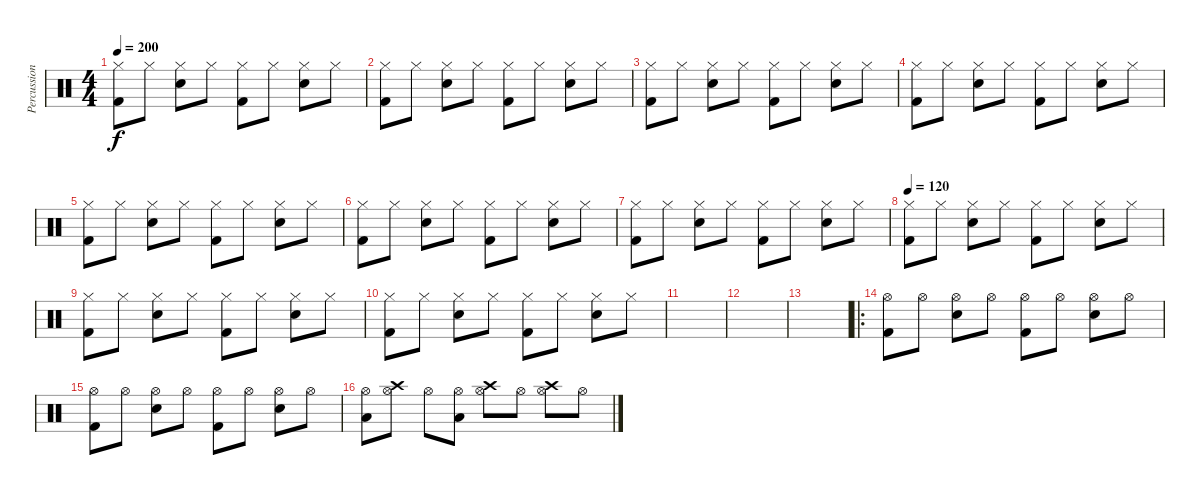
\track ("Percussion" "Percussion") {instrument percussion}
\staff {score}
\articulation defaults
\ts (4 4)
\tempo 200
\clef neutral
\ks c
("Hi-Hat (closed)" "Kick (hit) 2").8{dy f} "Hi-Hat (closed)".8 ("Hi-Hat (closed)" "Electric Snare (hit)").8 "Hi-Hat (closed)".8 ("Hi-Hat (closed)" "Kick (hit) 2").8 "Hi-Hat (closed)".8 ("Hi-Hat (closed)" "Electric Snare (hit)").8 "Hi-Hat (closed)".8 |
("Hi-Hat (closed)" "Kick (hit) 2").8 "Hi-Hat (closed)".8 ("Hi-Hat (closed)" "Electric Snare (hit)").8 "Hi-Hat (closed)".8 ("Hi-Hat (closed)" "Kick (hit) 2").8 "Hi-Hat (closed)".8 ("Hi-Hat (closed)" "Electric Snare (hit)").8 "Hi-Hat (closed)".8 |
("Hi-Hat (closed)" "Kick (hit) 2").8 "Hi-Hat (closed)".8 ("Hi-Hat (closed)" "Electric Snare (hit)").8 "Hi-Hat (closed)".8 ("Hi-Hat (closed)" "Kick (hit) 2").8 "Hi-Hat (closed)".8 ("Hi-Hat (closed)" "Electric Snare (hit)").8 "Hi-Hat (closed)".8 |
("Hi-Hat (closed)" "Kick (hit) 2").8 "Hi-Hat (closed)".8 ("Hi-Hat (closed)" "Electric Snare (hit)").8 "Hi-Hat (closed)".8 ("Hi-Hat (closed)" "Kick (hit) 2").8 "Hi-Hat (closed)".8 ("Hi-Hat (closed)" "Electric Snare (hit)").8 "Hi-Hat (closed)".8 |
("Hi-Hat (closed)" "Kick (hit) 2").8 "Hi-Hat (closed)".8 ("Hi-Hat (closed)" "Electric Snare (hit)").8 "Hi-Hat (closed)".8 ("Hi-Hat (closed)" "Kick (hit) 2").8 "Hi-Hat (closed)".8 ("Hi-Hat (closed)" "Electric Snare (hit)").8 "Hi-Hat (closed)".8 |
("Hi-Hat (closed)" "Kick (hit) 2").8 "Hi-Hat (closed)".8 ("Hi-Hat (closed)" "Electric Snare (hit)").8 "Hi-Hat (closed)".8 ("Hi-Hat (closed)" "Kick (hit) 2").8 "Hi-Hat (closed)".8 ("Hi-Hat (closed)" "Electric Snare (hit)").8 "Hi-Hat (closed)".8 |
("Hi-Hat (closed)" "Kick (hit) 2").8 "Hi-Hat (closed)".8 ("Hi-Hat (closed)" "Electric Snare (hit)").8 "Hi-Hat (closed)".8 ("Hi-Hat (closed)" "Kick (hit) 2").8 "Hi-Hat (closed)".8 ("Hi-Hat (closed)" "Electric Snare (hit)").8 "Hi-Hat (closed)".8 |
\tempo 120
("Hi-Hat (closed)" "Kick (hit) 2").8 "Hi-Hat (closed)".8 ("Hi-Hat (closed)" "Electric Snare (hit)").8 "Hi-Hat (closed)".8 ("Hi-Hat (closed)" "Kick (hit) 2").8 "Hi-Hat (closed)".8 ("Hi-Hat (closed)" "Electric Snare (hit)").8 "Hi-Hat (closed)".8 |
("Hi-Hat (closed)" "Kick (hit) 2").8 "Hi-Hat (closed)".8 ("Hi-Hat (closed)" "Electric Snare (hit)").8 "Hi-Hat (closed)".8 ("Hi-Hat (closed)" "Kick (hit) 2").8 "Hi-Hat (closed)".8 ("Hi-Hat (closed)" "Electric Snare (hit)").8 "Hi-Hat (closed)".8 |
("Hi-Hat (closed)" "Kick (hit) 2").8 "Hi-Hat (closed)".8 ("Hi-Hat (closed)" "Electric Snare (hit)").8 "Hi-Hat (closed)".8 ("Hi-Hat (closed)" "Kick (hit) 2").8 "Hi-Hat (closed)".8 ("Hi-Hat (closed)" "Electric Snare (hit)").8 "Hi-Hat (closed)".8 |
|
|
|
\ro
("Hi-Hat (open)" "Kick (hit) 2").8 "Hi-Hat (open)".8 ("Hi-Hat (open)" "Electric Snare (hit)").8 "Hi-Hat (open)".8 ("Hi-Hat (open)" "Kick (hit) 2").8 "Hi-Hat (open)".8 ("Hi-Hat (open)" "Electric Snare (hit)").8 "Hi-Hat (open)".8 |
("Hi-Hat (open)" "Kick (hit) 2").8 "Hi-Hat (open)".8 ("Hi-Hat (open)" "Electric Snare (hit)").8 "Hi-Hat (open)".8 ("Hi-Hat (open)" "Kick (hit) 2").8 "Hi-Hat (open)".8 ("Hi-Hat (open)" "Electric Snare (hit)").8 "Hi-Hat (open)".8 |
("Low Tom (hit)" "Hi-Hat (open)").8 ("Crash high (hit)" "Hi-Hat (open)").8 "Hi-Hat (open)".8 ("Low Tom (hit)" "Hi-Hat (open)").8 ("Crash high (hit)" "Hi-Hat (open)").8 "Hi-Hat (open)".8 ("Crash high (hit)" "Hi-Hat (open)").8 "Hi-Hat (open)".8
